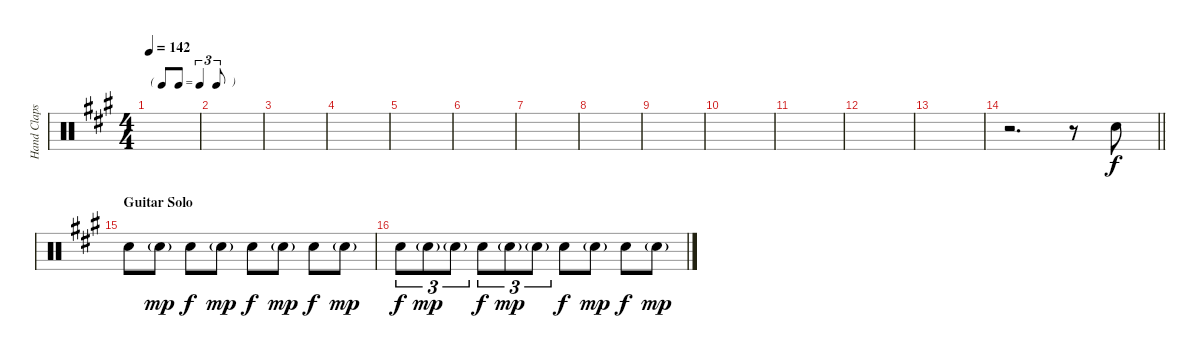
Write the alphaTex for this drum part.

\track ("Hand Claps" "Hand Claps") {instrument percussion}
\staff {score}
\articulation defaults
\ts (4 4)
\tf triplet8th
\tempo 142
\clef neutral
\ks a
|
|
|
|
|
|
|
|
|
|
|
|
|
\barLineRight lightlight
r.2{d} r.8 "Hand Clap (hit)".8 |
\section ("" "Guitar Solo")
"Hand Clap (hit)".8 "Hand Clap (hit)"{g}.8{dy mp} "Hand Clap (hit)".8{dy f} "Hand Clap (hit)"{g}.8{dy mp} "Hand Clap (hit)".8{dy f} "Hand Clap (hit)"{g}.8{dy mp} "Hand Clap (hit)".8{dy f} "Hand Clap (hit)"{g}.8{dy mp} |
"Hand Clap (hit)".8{tu (3 2) dy f} "Hand Clap (hit)"{g}.8{tu (3 2) dy mp} "Hand Clap (hit)"{g}.8{tu (3 2)} "Hand Clap (hit)".8{tu (3 2) dy f} "Hand Clap (hit)"{g}.8{tu (3 2) dy mp} "Hand Clap (hit)"{g}.8{tu (3 2)} "Hand Clap (hit)".8{dy f} "Hand Clap (hit)"{g}.8{dy mp} "Hand Clap (hit)".8{dy f} "Hand Clap (hit)"{g}.8{dy mp}
